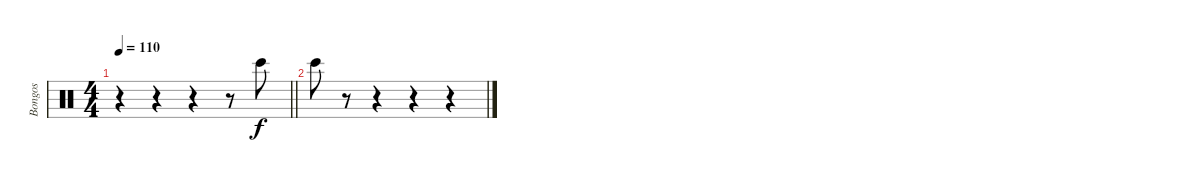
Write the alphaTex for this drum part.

\track ("Bongos" "Bongos") {instrument percussion}
\staff {score}
\articulation defaults
\ts (4 4)
\tempo 110
\clef neutral
\barLineRight lightlight
\ks c
r.4{dy f} r.4 r.4 r.8 "Bongo High (hit)".8 |
"Bongo High (hit)".8 r.8 r.4 r.4 r.4
